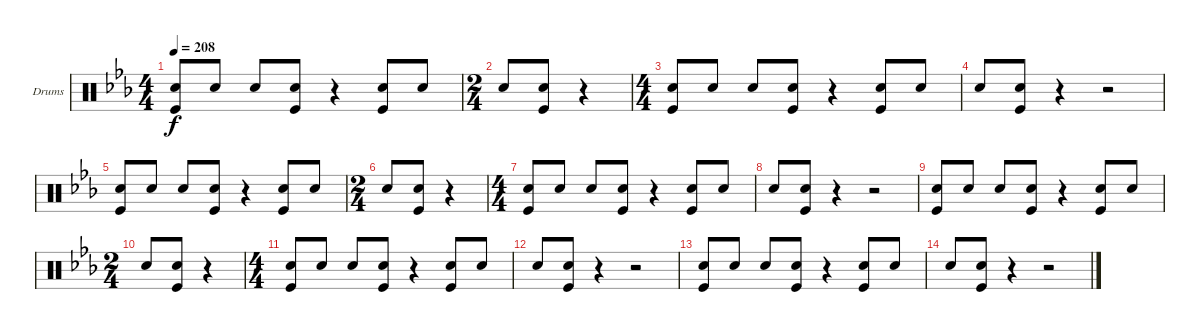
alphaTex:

\defaultSystemsLayout 4
\bracketExtendMode groupsimilarinstruments
\firstSystemTrackNameOrientation horizontal
\otherSystemsTrackNameOrientation horizontal
\track ("Drumkit" "Drums") {instrument percussion}
\staff {score}
\articulation defaults
\ts (4 4)
\tempo 208
\clef neutral
\ks eb
("Snare (hit) 2" "Kick (hit)").8{dy f} "Snare (hit) 2".8 "Snare (hit) 2".8 ("Snare (hit) 2" "Kick (hit)").8 r.4 ("Snare (hit) 2" "Kick (hit)").8 "Snare (hit) 2".8 |
\ts (2 4)
"Snare (hit) 2".8 ("Snare (hit) 2" "Kick (hit)").8 r.4 |
\ts (4 4)
("Snare (hit) 2" "Kick (hit)").8 "Snare (hit) 2".8 "Snare (hit) 2".8 ("Snare (hit) 2" "Kick (hit)").8 r.4 ("Snare (hit) 2" "Kick (hit)").8 "Snare (hit) 2".8 |
"Snare (hit) 2".8 ("Snare (hit) 2" "Kick (hit)").8 r.4 r.2 |
("Snare (hit) 2" "Kick (hit)").8 "Snare (hit) 2".8 "Snare (hit) 2".8 ("Snare (hit) 2" "Kick (hit)").8 r.4 ("Snare (hit) 2" "Kick (hit)").8 "Snare (hit) 2".8 |
\ts (2 4)
"Snare (hit) 2".8 ("Snare (hit) 2" "Kick (hit)").8 r.4 |
\ts (4 4)
("Snare (hit) 2" "Kick (hit)").8 "Snare (hit) 2".8 "Snare (hit) 2".8 ("Snare (hit) 2" "Kick (hit)").8 r.4 ("Snare (hit) 2" "Kick (hit)").8 "Snare (hit) 2".8 |
"Snare (hit) 2".8 ("Snare (hit) 2" "Kick (hit)").8 r.4 r.2 |
("Snare (hit) 2" "Kick (hit)").8 "Snare (hit) 2".8 "Snare (hit) 2".8 ("Snare (hit) 2" "Kick (hit)").8 r.4 ("Snare (hit) 2" "Kick (hit)").8 "Snare (hit) 2".8 |
\ts (2 4)
"Snare (hit) 2".8 ("Snare (hit) 2" "Kick (hit)").8 r.4 |
\ts (4 4)
("Snare (hit) 2" "Kick (hit)").8 "Snare (hit) 2".8 "Snare (hit) 2".8 ("Snare (hit) 2" "Kick (hit)").8 r.4 ("Snare (hit) 2" "Kick (hit)").8 "Snare (hit) 2".8 |
"Snare (hit) 2".8 ("Snare (hit) 2" "Kick (hit)").8 r.4 r.2 |
("Snare (hit) 2" "Kick (hit)").8 "Snare (hit) 2".8 "Snare (hit) 2".8 ("Snare (hit) 2" "Kick (hit)").8 r.4 ("Snare (hit) 2" "Kick (hit)").8 "Snare (hit) 2".8 |
"Snare (hit) 2".8 ("Snare (hit) 2" "Kick (hit)").8 r.4 r.2
